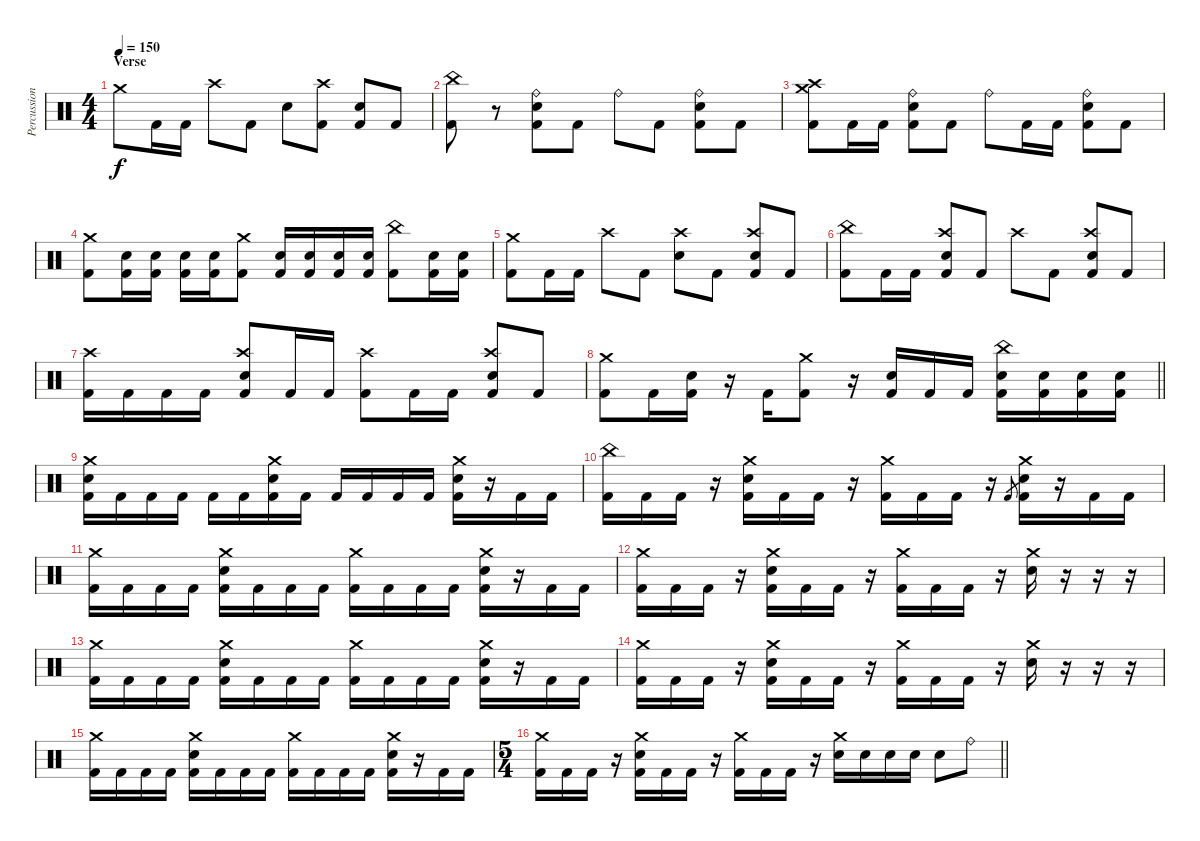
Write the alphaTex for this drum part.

\track ("Percussion" "Percussion") {instrument percussion}
\staff {score}
\articulation defaults
\ts (4 4)
\section ("" "Verse")
\tempo 150
\clef neutral
\ks c "Crash medium (hit)".8{dy f} "Kick (hit) 2".16 "Kick (hit) 2".16 "Crash high (hit)".8 "Kick (hit) 2".8 "Electric Snare (hit)".8
("Crash high (hit)" "Kick (hit) 2").8 ("Electric Snare (hit)" "Kick (hit) 2").8 "Kick (hit) 2".8 |
("China (hit)" "Kick (hit) 2").8 r.8 ("Ride (bell)" "Electric Snare (hit)" "Kick (hit) 2").8 "Kick (hit) 2".8 "Ride (bell)".8 "Kick (hit) 2".8 ("Ride (bell)" "Electric Snare (hit)" "Kick (hit) 2").8 "Kick (hit) 2".8 |
("Crash medium (hit)" "Crash high (hit)" "Kick (hit) 2").8 "Kick (hit) 2".16 "Kick (hit) 2".16 ("Ride (bell)" "Electric Snare (hit)" "Kick (hit) 2").8 "Kick (hit) 2".8 "Ride (bell)".8 "Kick (hit) 2".16 "Kick (hit) 2".16 ("Ride (bell)" "Electric Snare (hit)" "Kick (hit) 2").8 "Kick (hit) 2".8 |
("Crash medium (hit)" "Kick (hit) 2").8 ("Electric Snare (hit)" "Kick (hit) 2").16 ("Electric Snare (hit)" "Kick (hit) 2").16 ("Electric Snare (hit)" "Kick (hit) 2").16 ("Electric Snare (hit)" "Kick (hit) 2").16 ("Crash medium (hit)" "Kick (hit) 2").8 ("Electric Snare (hit)" "Kick (hit) 2").16 ("Electric Snare (hit)" "Kick (hit) 2").16 ("Electric Snare (hit)" "Kick (hit) 2").16 ("Electric Snare (hit)" "Kick (hit) 2").16 ("China (hit)" "Kick (hit) 2").8 ("Electric Snare (hit)" "Kick (hit) 2").16 ("Electric Snare (hit)" "Kick (hit) 2").16 |
("Crash medium (hit)" "Kick (hit) 2").8 "Kick (hit) 2".16 "Kick (hit) 2".16 "Crash high (hit)".8 "Kick (hit) 2".8 ("Crash high (hit)" "Electric Snare (hit)").8 "Kick (hit) 2".8 ("Crash high (hit)" "Electric Snare (hit)" "Kick (hit) 2").8 "Kick (hit) 2".8 |
("China (hit)" "Kick (hit) 2").8 "Kick (hit) 2".16 "Kick (hit) 2".16 ("Crash high (hit)" "Electric Snare (hit)" "Kick (hit) 2").8 "Kick (hit) 2".8 "Crash high (hit)".8 "Kick (hit) 2".8 ("Crash high (hit)" "Electric Snare (hit)" "Kick (hit) 2").8 "Kick (hit) 2".8 |
("Crash high (hit)" "Kick (hit) 2").16 "Kick (hit) 2".16 "Kick (hit) 2".16 "Kick (hit) 2".16 ("Crash high (hit)" "Electric Snare (hit)" "Kick (hit) 2").8 "Kick (hit) 2".16 "Kick (hit) 2".16 ("Crash high (hit)" "Kick (hit) 2").8 "Kick (hit) 2".16 "Kick (hit) 2".16 ("Crash high (hit)" "Electric Snare (hit)" "Kick (hit) 2").8 "Kick (hit) 2".8 |
\barLineRight lightlight
("Crash medium (hit)" "Kick (hit) 2").8 "Kick (hit) 2".16 ("Electric Snare (hit)" "Kick (hit) 2").16 r.16 "Kick (hit) 2".16 ("Crash medium (hit)" "Kick (hit) 2").8 r.16 ("Electric Snare (hit)" "Kick (hit) 2").16 "Kick (hit) 2".16 "Kick (hit) 2".16 ("China (hit)" "Electric Snare (hit)" "Kick (hit) 2").16 ("Electric Snare (hit)" "Kick (hit) 2").16 ("Electric Snare (hit)" "Kick (hit) 2").16 ("Electric Snare (hit)" "Kick (hit) 2").16 |
("Crash medium (hit)" "Electric Snare (hit)" "Kick (hit) 2").16 "Kick (hit) 2".16 "Kick (hit) 2".16 "Kick (hit) 2".16 "Kick (hit) 2".16 "Kick (hit) 2".16 ("Crash medium (hit)" "Electric Snare (hit)" "Kick (hit) 2").16 "Kick (hit) 2".16 "Kick (hit) 2".16 "Kick (hit) 2".16 "Kick (hit) 2".16 "Kick (hit) 2".16 ("Crash medium (hit)" "Electric Snare (hit)" "Kick (hit) 2").16 r.16 "Kick (hit) 2".16 "Kick (hit) 2".16 |
("China (hit)" "Kick (hit) 2").16 "Kick (hit) 2".16 "Kick (hit) 2".16 r.16 ("Crash medium (hit)" "Electric Snare (hit)" "Kick (hit) 2").16 "Kick (hit) 2".16 "Kick (hit) 2".16 r.16 ("Crash medium (hit)" "Kick (hit) 2").16 "Kick (hit) 2".16 "Kick (hit) 2".16 r.16 "Kick (hit) 2".8{gr} ("Crash medium (hit)" "Electric Snare (hit)" "Kick (hit) 2").16 r.16 "Kick (hit) 2".16 "Kick (hit) 2".16 |
("Crash medium (hit)" "Kick (hit) 2").16 "Kick (hit) 2".16 "Kick (hit) 2".16 "Kick (hit) 2".16 ("Crash medium (hit)" "Electric Snare (hit)" "Kick (hit) 2").16 "Kick (hit) 2".16 "Kick (hit) 2".16 "Kick (hit) 2".16 ("Crash medium (hit)" "Kick (hit) 2").16 "Kick (hit) 2".16 "Kick (hit) 2".16 "Kick (hit) 2".16 ("Crash medium (hit)" "Electric Snare (hit)" "Kick (hit) 2").16 r.16 "Kick (hit) 2".16 "Kick (hit) 2".16 |
("Crash medium (hit)" "Kick (hit) 2").16 "Kick (hit) 2".16 "Kick (hit) 2".16 r.16 ("Crash medium (hit)" "Electric Snare (hit)" "Kick (hit) 2").16 "Kick (hit) 2".16 "Kick (hit) 2".16 r.16 ("Crash medium (hit)" "Kick (hit) 2").16 "Kick (hit) 2".16 "Kick (hit) 2".16 r.16 ("Crash medium (hit)" "Electric Snare (hit)").16 r.16 r.16 r.16 |
("Crash medium (hit)" "Kick (hit) 2").16 "Kick (hit) 2".16 "Kick (hit) 2".16 "Kick (hit) 2".16 ("Crash medium (hit)" "Electric Snare (hit)" "Kick (hit) 2").16 "Kick (hit) 2".16 "Kick (hit) 2".16 "Kick (hit) 2".16 ("Crash medium (hit)" "Kick (hit) 2").16 "Kick (hit) 2".16 "Kick (hit) 2".16 "Kick (hit) 2".16 ("Crash medium (hit)" "Electric Snare (hit)" "Kick (hit) 2").16 r.16 "Kick (hit) 2".16 "Kick (hit) 2".16 |
("Crash medium (hit)" "Kick (hit) 2").16 "Kick (hit) 2".16 "Kick (hit) 2".16 r.16 ("Crash medium (hit)" "Electric Snare (hit)" "Kick (hit) 2").16 "Kick (hit) 2".16 "Kick (hit) 2".16 r.16 ("Crash medium (hit)" "Kick (hit) 2").16 "Kick (hit) 2".16 "Kick (hit) 2".16 r.16 ("Crash medium (hit)" "Electric Snare (hit)").16 r.16 r.16 r.16 |
("Crash medium (hit)" "Kick (hit) 2").16 "Kick (hit) 2".16 "Kick (hit) 2".16 "Kick (hit) 2".16 ("Crash medium (hit)" "Electric Snare (hit)" "Kick (hit) 2").16 "Kick (hit) 2".16 "Kick (hit) 2".16 "Kick (hit) 2".16 ("Crash medium (hit)" "Kick (hit) 2").16 "Kick (hit) 2".16 "Kick (hit) 2".16 "Kick (hit) 2".16 ("Crash medium (hit)" "Electric Snare (hit)" "Kick (hit) 2").16 r.16 "Kick (hit) 2".16 "Kick (hit) 2".16 |
\ts (5 4)
\barLineRight lightlight
("Crash medium (hit)" "Kick (hit) 2").16 "Kick (hit) 2".16 "Kick (hit) 2".16 r.16 ("Crash medium (hit)" "Electric Snare (hit)" "Kick (hit) 2").16 "Kick (hit) 2".16 "Kick (hit) 2".16 r.16 ("Crash medium (hit)" "Kick (hit) 2").16 "Kick (hit) 2".16 "Kick (hit) 2".16 r.16 ("Crash medium (hit)" "Electric Snare (hit)").16 "Electric Snare (hit)".16 "Electric Snare (hit)".16 "Electric Snare (hit)".16 "Electric Snare (hit)".8 "Ride (bell)".8
